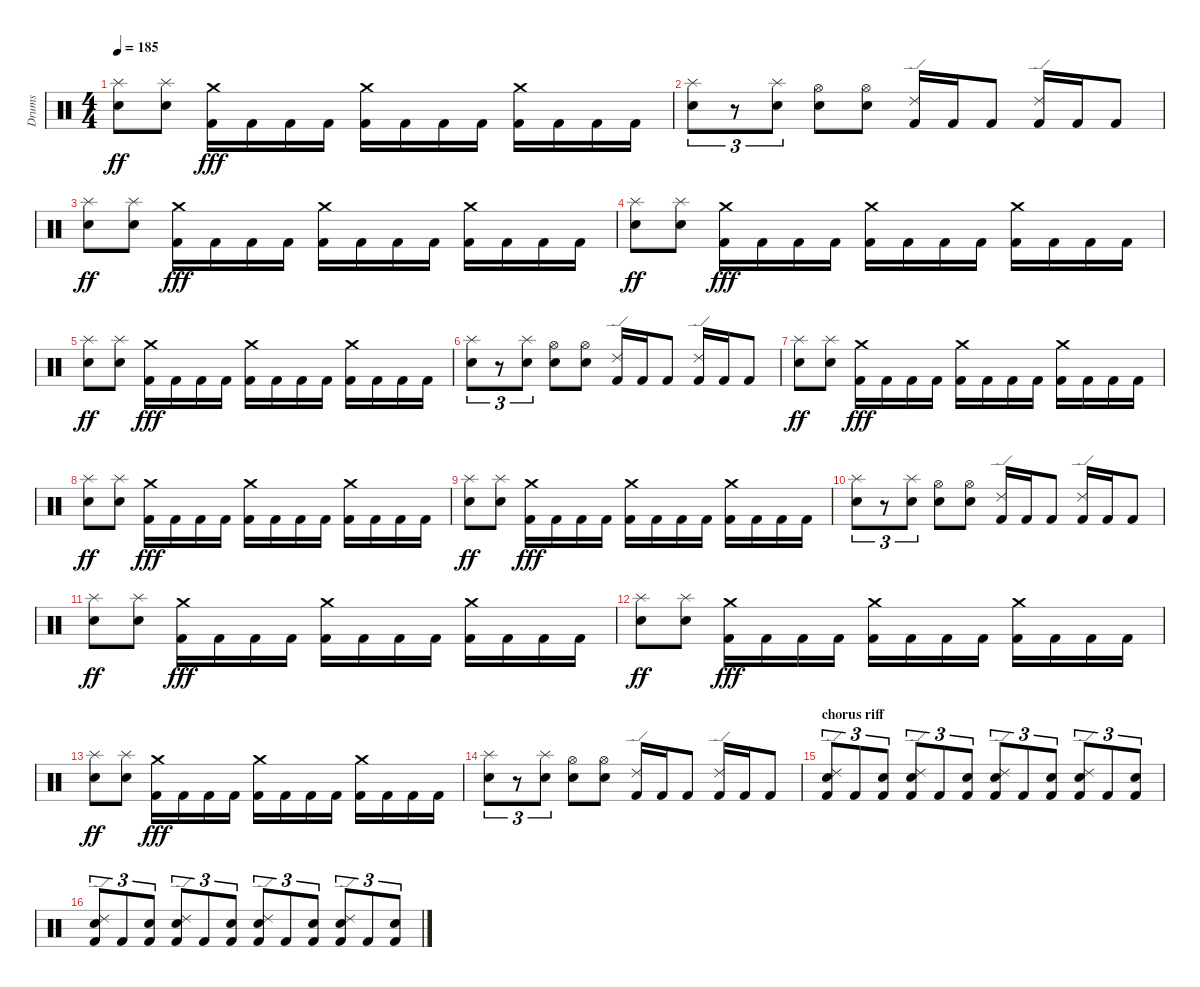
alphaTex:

\track ("Drums" "Drums") {instrument percussion}
\staff {score}
\articulation defaults
\ts (4 4)
\tempo 185
\clef neutral
\ks c
("Splash (hit)" "Electric Snare (hit)").8{dy ff} ("Splash (hit)" "Electric Snare (hit)").8 ("Kick (hit) 2" "Crash medium (hit)").16{dy fff} "Kick (hit) 2".16 "Kick (hit) 2".16 "Kick (hit) 2".16 ("Kick (hit) 2" "Crash medium (hit)").16 "Kick (hit) 2".16 "Kick (hit) 2".16 "Kick (hit) 2".16 ("Kick (hit) 2" "Crash medium (hit)").16 "Kick (hit) 2".16 "Kick (hit) 2".16 "Kick (hit) 2".16 |
("Electric Snare (hit)" "Splash (hit)").8{tu (3 2)} r.8{tu (3 2)} ("Electric Snare (hit)" "Splash (hit)").8{tu (3 2)} ("Snare (hit) 2" "Hi-Hat (open)").8 ("Snare (hit) 2" "Hi-Hat (open)").8 ("Kick (hit) 2" "Ride (edge) 2").16 "Kick (hit) 2".16 "Kick (hit) 2".8 ("Kick (hit) 2" "Ride (edge) 2").16 "Kick (hit) 2".16 "Kick (hit) 2".8 |
("Splash (hit)" "Electric Snare (hit)").8{dy ff} ("Splash (hit)" "Electric Snare (hit)").8 ("Kick (hit) 2" "Crash medium (hit)").16{dy fff} "Kick (hit) 2".16 "Kick (hit) 2".16 "Kick (hit) 2".16 ("Kick (hit) 2" "Crash medium (hit)").16 "Kick (hit) 2".16 "Kick (hit) 2".16 "Kick (hit) 2".16 ("Kick (hit) 2" "Crash medium (hit)").16 "Kick (hit) 2".16 "Kick (hit) 2".16 "Kick (hit) 2".16 |
("Splash (hit)" "Electric Snare (hit)").8{dy ff} ("Splash (hit)" "Electric Snare (hit)").8 ("Kick (hit) 2" "Crash medium (hit)").16{dy fff} "Kick (hit) 2".16 "Kick (hit) 2".16 "Kick (hit) 2".16 ("Kick (hit) 2" "Crash medium (hit)").16 "Kick (hit) 2".16 "Kick (hit) 2".16 "Kick (hit) 2".16 ("Kick (hit) 2" "Crash medium (hit)").16 "Kick (hit) 2".16 "Kick (hit) 2".16 "Kick (hit) 2".16 |
("Splash (hit)" "Electric Snare (hit)").8{dy ff} ("Splash (hit)" "Electric Snare (hit)").8 ("Kick (hit) 2" "Crash medium (hit)").16{dy fff} "Kick (hit) 2".16 "Kick (hit) 2".16 "Kick (hit) 2".16 ("Kick (hit) 2" "Crash medium (hit)").16 "Kick (hit) 2".16 "Kick (hit) 2".16 "Kick (hit) 2".16 ("Kick (hit) 2" "Crash medium (hit)").16 "Kick (hit) 2".16 "Kick (hit) 2".16 "Kick (hit) 2".16 |
("Electric Snare (hit)" "Splash (hit)").8{tu (3 2)} r.8{tu (3 2)} ("Electric Snare (hit)" "Splash (hit)").8{tu (3 2)} ("Snare (hit) 2" "Hi-Hat (open)").8 ("Snare (hit) 2" "Hi-Hat (open)").8 ("Kick (hit) 2" "Ride (edge) 2").16 "Kick (hit) 2".16 "Kick (hit) 2".8 ("Kick (hit) 2" "Ride (edge) 2").16 "Kick (hit) 2".16 "Kick (hit) 2".8 |
("Splash (hit)" "Electric Snare (hit)").8{dy ff} ("Splash (hit)" "Electric Snare (hit)").8 ("Kick (hit) 2" "Crash medium (hit)").16{dy fff} "Kick (hit) 2".16 "Kick (hit) 2".16 "Kick (hit) 2".16 ("Kick (hit) 2" "Crash medium (hit)").16 "Kick (hit) 2".16 "Kick (hit) 2".16 "Kick (hit) 2".16 ("Kick (hit) 2" "Crash medium (hit)").16 "Kick (hit) 2".16 "Kick (hit) 2".16 "Kick (hit) 2".16 |
("Splash (hit)" "Electric Snare (hit)").8{dy ff} ("Splash (hit)" "Electric Snare (hit)").8 ("Kick (hit) 2" "Crash medium (hit)").16{dy fff} "Kick (hit) 2".16 "Kick (hit) 2".16 "Kick (hit) 2".16 ("Kick (hit) 2" "Crash medium (hit)").16 "Kick (hit) 2".16 "Kick (hit) 2".16 "Kick (hit) 2".16 ("Kick (hit) 2" "Crash medium (hit)").16 "Kick (hit) 2".16 "Kick (hit) 2".16 "Kick (hit) 2".16 |
("Splash (hit)" "Electric Snare (hit)").8{dy ff} ("Splash (hit)" "Electric Snare (hit)").8 ("Kick (hit) 2" "Crash medium (hit)").16{dy fff} "Kick (hit) 2".16 "Kick (hit) 2".16 "Kick (hit) 2".16 ("Kick (hit) 2" "Crash medium (hit)").16 "Kick (hit) 2".16 "Kick (hit) 2".16 "Kick (hit) 2".16 ("Kick (hit) 2" "Crash medium (hit)").16 "Kick (hit) 2".16 "Kick (hit) 2".16 "Kick (hit) 2".16 |
("Electric Snare (hit)" "Splash (hit)").8{tu (3 2)} r.8{tu (3 2)} ("Electric Snare (hit)" "Splash (hit)").8{tu (3 2)} ("Snare (hit) 2" "Hi-Hat (open)").8 ("Snare (hit) 2" "Hi-Hat (open)").8 ("Kick (hit) 2" "Ride (edge) 2").16 "Kick (hit) 2".16 "Kick (hit) 2".8 ("Kick (hit) 2" "Ride (edge) 2").16 "Kick (hit) 2".16 "Kick (hit) 2".8 |
("Splash (hit)" "Electric Snare (hit)").8{dy ff} ("Splash (hit)" "Electric Snare (hit)").8 ("Kick (hit) 2" "Crash medium (hit)").16{dy fff} "Kick (hit) 2".16 "Kick (hit) 2".16 "Kick (hit) 2".16 ("Kick (hit) 2" "Crash medium (hit)").16 "Kick (hit) 2".16 "Kick (hit) 2".16 "Kick (hit) 2".16 ("Kick (hit) 2" "Crash medium (hit)").16 "Kick (hit) 2".16 "Kick (hit) 2".16 "Kick (hit) 2".16 |
("Splash (hit)" "Electric Snare (hit)").8{dy ff} ("Splash (hit)" "Electric Snare (hit)").8 ("Kick (hit) 2" "Crash medium (hit)").16{dy fff} "Kick (hit) 2".16 "Kick (hit) 2".16 "Kick (hit) 2".16 ("Kick (hit) 2" "Crash medium (hit)").16 "Kick (hit) 2".16 "Kick (hit) 2".16 "Kick (hit) 2".16 ("Kick (hit) 2" "Crash medium (hit)").16 "Kick (hit) 2".16 "Kick (hit) 2".16 "Kick (hit) 2".16 |
("Splash (hit)" "Electric Snare (hit)").8{dy ff} ("Splash (hit)" "Electric Snare (hit)").8 ("Kick (hit) 2" "Crash medium (hit)").16{dy fff} "Kick (hit) 2".16 "Kick (hit) 2".16 "Kick (hit) 2".16 ("Kick (hit) 2" "Crash medium (hit)").16 "Kick (hit) 2".16 "Kick (hit) 2".16 "Kick (hit) 2".16 ("Kick (hit) 2" "Crash medium (hit)").16 "Kick (hit) 2".16 "Kick (hit) 2".16 "Kick (hit) 2".16 |
("Electric Snare (hit)" "Splash (hit)").8{tu (3 2)} r.8{tu (3 2)} ("Electric Snare (hit)" "Splash (hit)").8{tu (3 2)} ("Snare (hit) 2" "Hi-Hat (open)").8 ("Snare (hit) 2" "Hi-Hat (open)").8 ("Kick (hit) 2" "Ride (edge) 2").16 "Kick (hit) 2".16 "Kick (hit) 2".8 ("Kick (hit) 2" "Ride (edge) 2").16 "Kick (hit) 2".16 "Kick (hit) 2".8 |
\section ("" "chorus riff")
("Ride (edge) 2" "Electric Snare (hit)" "Kick (hit) 2").8{tu (3 2)} "Kick (hit) 2".8{tu (3 2)} ("Snare (hit) 2" "Kick (hit) 2").8{tu (3 2)} ("Ride (edge) 2" "Electric Snare (hit)" "Kick (hit) 2").8{tu (3 2)} "Kick (hit) 2".8{tu (3 2)} ("Snare (hit) 2" "Kick (hit) 2").8{tu (3 2)} ("Ride (edge) 2" "Electric Snare (hit)" "Kick (hit) 2").8{tu (3 2)} "Kick (hit) 2".8{tu (3 2)} ("Snare (hit) 2" "Kick (hit) 2").8{tu (3 2)} ("Ride (edge) 2" "Electric Snare (hit)" "Kick (hit) 2").8{tu (3 2)} "Kick (hit) 2".8{tu (3 2)} ("Snare (hit) 2" "Kick (hit) 2").8{tu (3 2)} |
("Ride (edge) 2" "Electric Snare (hit)" "Kick (hit) 2").8{tu (3 2)} "Kick (hit) 2".8{tu (3 2)} ("Snare (hit) 2" "Kick (hit) 2").8{tu (3 2)} ("Ride (edge) 2" "Electric Snare (hit)" "Kick (hit) 2").8{tu (3 2)} "Kick (hit) 2".8{tu (3 2)} ("Snare (hit) 2" "Kick (hit) 2").8{tu (3 2)} ("Ride (edge) 2" "Electric Snare (hit)" "Kick (hit) 2").8{tu (3 2)} "Kick (hit) 2".8{tu (3 2)} ("Snare (hit) 2" "Kick (hit) 2").8{tu (3 2)} ("Ride (edge) 2" "Electric Snare (hit)" "Kick (hit) 2").8{tu (3 2)} "Kick (hit) 2".8{tu (3 2)} ("Snare (hit) 2" "Kick (hit) 2").8{tu (3 2)}
